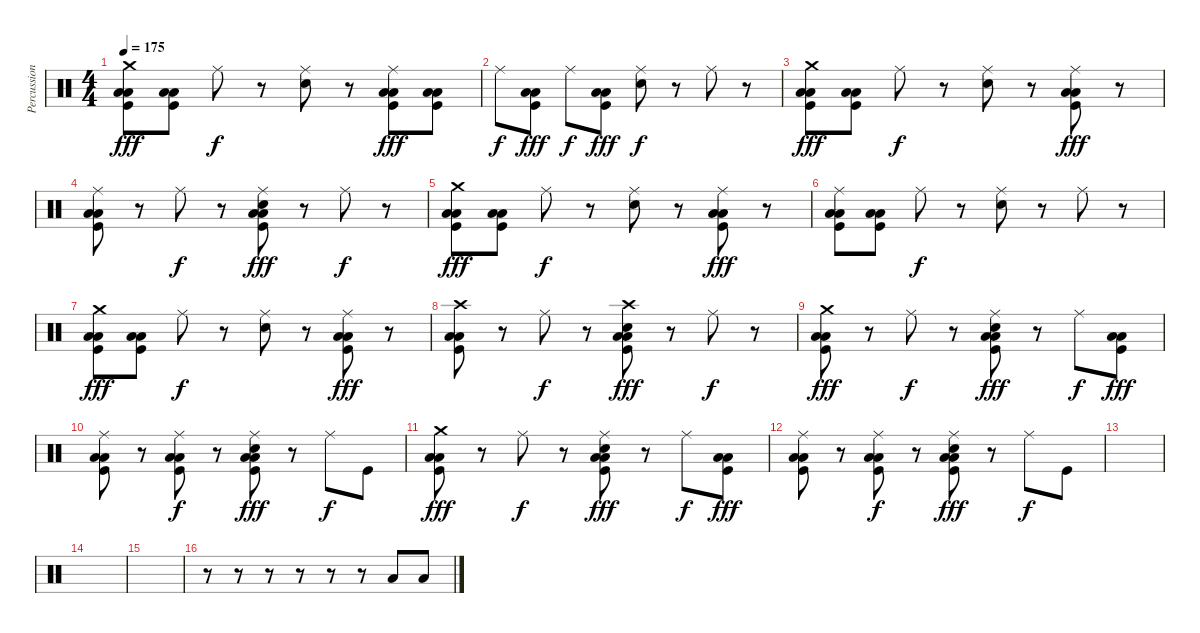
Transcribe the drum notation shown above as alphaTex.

\track ("Percussions" "Percussion") {instrument percussion}
\staff {score}
\articulation defaults
\ts (4 4)
\tempo 175
\clef neutral
\ks c
("Crash medium (hit)" "Low Tom (hit)" "Low Floor Tom (hit)" "Kick (hit)").8{dy fff} ("Low Tom (hit)" "Low Floor Tom (hit)" "Kick (hit)").8 "Ride (middle)".8{dy f} r.8 ("Ride (middle)" "Snare (hit) 2").8 r.8 ("Ride (middle)" "Low Tom (hit)" "Low Floor Tom (hit)" "Kick (hit)").8{dy fff} ("Low Tom (hit)" "Low Floor Tom (hit)" "Kick (hit)").8 |
"Ride (middle)".8{dy f} ("Low Tom (hit)" "Low Floor Tom (hit)" "Kick (hit)").8{dy fff} "Ride (middle)".8{dy f} ("Low Tom (hit)" "Kick (hit)" "Low Floor Tom (hit)").8{dy fff} ("Ride (middle)" "Snare (hit) 2").8{dy f} r.8 "Ride (middle)".8 r.8 |
("Crash medium (hit)" "Low Tom (hit)" "Low Floor Tom (hit)" "Kick (hit)").8{dy fff} ("Low Tom (hit)" "Low Floor Tom (hit)" "Kick (hit)").8 "Ride (middle)".8{dy f} r.8 ("Ride (middle)" "Snare (hit) 2").8 r.8 ("Ride (middle)" "Low Tom (hit)" "Low Floor Tom (hit)" "Kick (hit)").8{dy fff} r.8 |
("Ride (middle)" "Low Tom (hit)" "Low Floor Tom (hit)" "Kick (hit)").8 r.8 "Ride (middle)".8{dy f} r.8 ("Ride (middle)" "Snare (hit) 2" "Low Tom (hit)" "Low Floor Tom (hit)" "Kick (hit)").8{dy fff} r.8 "Ride (middle)".8{dy f} r.8 |
("Crash medium (hit)" "Low Tom (hit)" "Low Floor Tom (hit)" "Kick (hit)").8{dy fff} ("Low Tom (hit)" "Low Floor Tom (hit)" "Kick (hit)").8 "Ride (middle)".8{dy f} r.8 ("Ride (middle)" "Snare (hit) 2").8 r.8 ("Ride (middle)" "Low Tom (hit)" "Low Floor Tom (hit)" "Kick (hit)").8{dy fff} r.8 |
("Ride (middle)" "Low Tom (hit)" "Low Floor Tom (hit)" "Kick (hit)").8 ("Low Tom (hit)" "Low Floor Tom (hit)" "Kick (hit)").8 "Ride (middle)".8{dy f} r.8 ("Ride (middle)" "Snare (hit) 2").8 r.8 "Ride (middle)".8 r.8 |
("Crash medium (hit)" "Low Tom (hit)" "Low Floor Tom (hit)" "Kick (hit)").8{dy fff} ("Low Tom (hit)" "Low Floor Tom (hit)" "Kick (hit)").8 "Ride (middle)".8{dy f} r.8 ("Ride (middle)" "Snare (hit) 2").8 r.8 ("Ride (middle)" "Low Tom (hit)" "Low Floor Tom (hit)" "Kick (hit)").8{dy fff} r.8 |
("Crash high (hit)" "Low Tom (hit)" "Low Floor Tom (hit)" "Kick (hit)").8 r.8 "Ride (middle)".8{dy f} r.8 ("Crash high (hit)" "Snare (hit) 2" "Low Tom (hit)" "Low Floor Tom (hit)" "Kick (hit)").8{dy fff} r.8 "Ride (middle)".8{dy f} r.8 |
("Crash medium (hit)" "Low Tom (hit)" "Low Floor Tom (hit)" "Kick (hit)").8{dy fff} r.8 "Ride (middle)".8{dy f} r.8 ("Ride (middle)" "Snare (hit) 2" "Low Tom (hit)" "Low Floor Tom (hit)" "Kick (hit)").8{dy fff} r.8 "Ride (middle)".8{dy f} ("Low Tom (hit)" "Low Floor Tom (hit)" "Kick (hit)").8{dy fff} |
("Ride (middle)" "Low Tom (hit)" "Low Floor Tom (hit)" "Kick (hit)").8 r.8 ("Ride (middle)" "Low Tom (hit)" "Low Floor Tom (hit)" "Kick (hit)").8{dy f} r.8 ("Ride (middle)" "Snare (hit) 2" "Low Tom (hit)" "Low Floor Tom (hit)" "Kick (hit)").8{dy fff} r.8 "Ride (middle)".8{dy f} "Kick (hit)".8 |
("Crash medium (hit)" "Low Tom (hit)" "Low Floor Tom (hit)" "Kick (hit)").8{dy fff} r.8 "Ride (middle)".8{dy f} r.8 ("Ride (middle)" "Snare (hit) 2" "Low Tom (hit)" "Low Floor Tom (hit)" "Kick (hit)").8{dy fff} r.8 "Ride (middle)".8{dy f} ("Low Tom (hit)" "Low Floor Tom (hit)" "Kick (hit)").8{dy fff} |
("Ride (middle)" "Low Tom (hit)" "Low Floor Tom (hit)" "Kick (hit)").8 r.8 ("Ride (middle)" "Low Tom (hit)" "Low Floor Tom (hit)" "Kick (hit)").8{dy f} r.8 ("Ride (middle)" "Snare (hit) 2" "Low Tom (hit)" "Low Floor Tom (hit)" "Kick (hit)").8{dy fff} r.8 "Ride (middle)".8{dy f} "Kick (hit)".8 |
|
|
|
r.8 r.8 r.8 r.8 r.8 r.8 "Low Tom (hit)".8 "Low Tom (hit)".8
